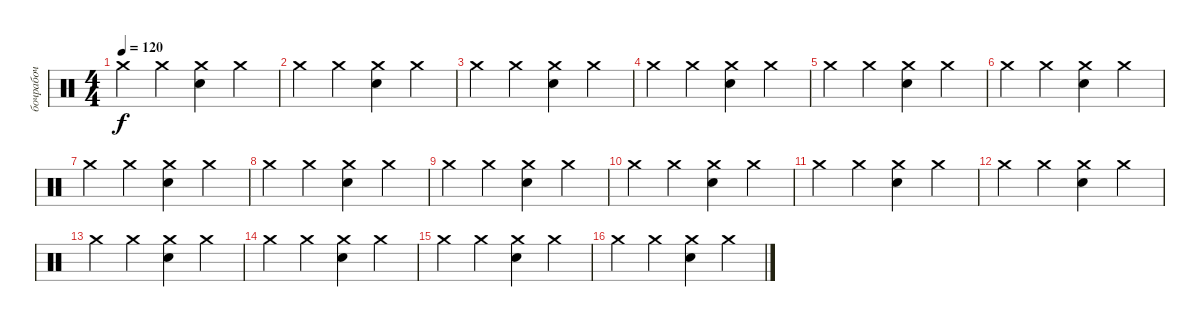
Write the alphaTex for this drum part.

\track ("бочрабоч" "бочрабоч") {instrument percussion}
\staff {score}
\articulation defaults
\ts (4 4)
\tempo 120
\clef neutral
\ks c "Crash medium (hit)".4{dy f} "Crash medium (hit)".4
("Snare (hit) 2" "Crash medium (hit)").4 "Crash medium (hit)".4 |
"Crash medium (hit)".4 "Crash medium (hit)".4 ("Crash medium (hit)" "Snare (hit) 2").4 "Crash medium (hit)".4 |
"Crash medium (hit)".4 "Crash medium (hit)".4 ("Snare (hit) 2" "Crash medium (hit)").4 "Crash medium (hit)".4 |
"Crash medium (hit)".4 "Crash medium (hit)".4 ("Crash medium (hit)" "Snare (hit) 2").4 "Crash medium (hit)".4 |
"Crash medium (hit)".4 "Crash medium (hit)".4 ("Snare (hit) 2" "Crash medium (hit)").4 "Crash medium (hit)".4 |
"Crash medium (hit)".4 "Crash medium (hit)".4 ("Crash medium (hit)" "Snare (hit) 2").4 "Crash medium (hit)".4 |
"Crash medium (hit)".4 "Crash medium (hit)".4 ("Snare (hit) 2" "Crash medium (hit)").4 "Crash medium (hit)".4 |
"Crash medium (hit)".4 "Crash medium (hit)".4 ("Crash medium (hit)" "Snare (hit) 2").4 "Crash medium (hit)".4 |
"Crash medium (hit)".4 "Crash medium (hit)".4 ("Crash medium (hit)" "Snare (hit) 2").4 "Crash medium (hit)".4 |
"Crash medium (hit)".4 "Crash medium (hit)".4 ("Crash medium (hit)" "Snare (hit) 2").4 "Crash medium (hit)".4 |
"Crash medium (hit)".4 "Crash medium (hit)".4 ("Crash medium (hit)" "Snare (hit) 2").4 "Crash medium (hit)".4 |
"Crash medium (hit)".4 "Crash medium (hit)".4 ("Crash medium (hit)" "Snare (hit) 2").4 "Crash medium (hit)".4 |
"Crash medium (hit)".4 "Crash medium (hit)".4 ("Crash medium (hit)" "Snare (hit) 2").4 "Crash medium (hit)".4 |
"Crash medium (hit)".4 "Crash medium (hit)".4 ("Crash medium (hit)" "Snare (hit) 2").4 "Crash medium (hit)".4 |
"Crash medium (hit)".4 "Crash medium (hit)".4 ("Crash medium (hit)" "Snare (hit) 2").4 "Crash medium (hit)".4 |
"Crash medium (hit)".4 "Crash medium (hit)".4 ("Crash medium (hit)" "Snare (hit) 2").4 "Crash medium (hit)".4
